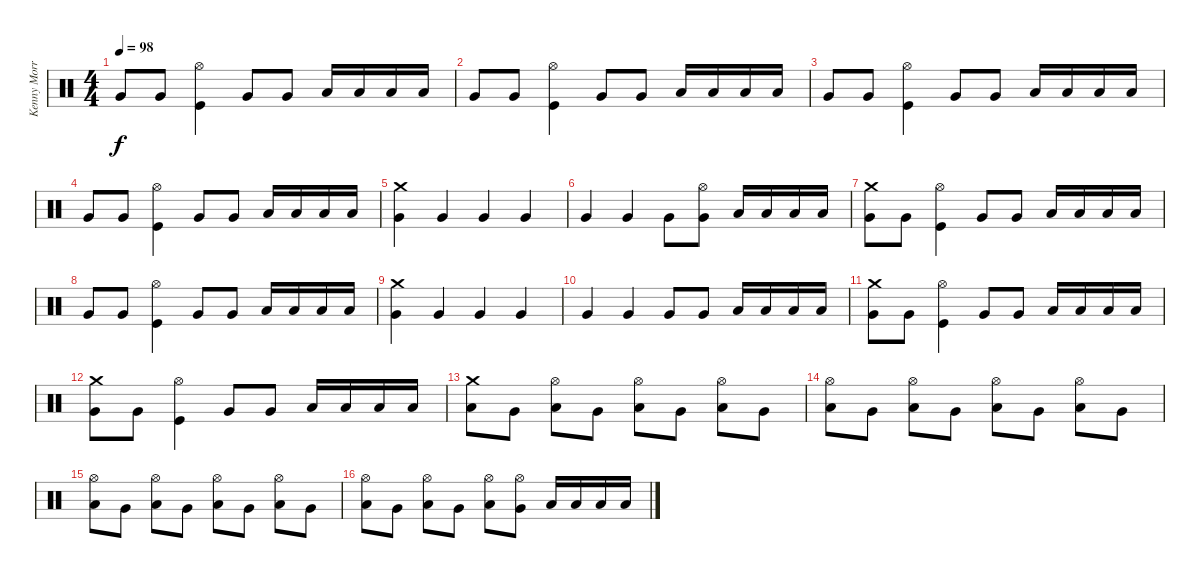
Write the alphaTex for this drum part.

\track ("Kenny Morris" "Kenny Morr") {instrument percussion}
\staff {score}
\articulation defaults
\ts (4 4)
\tempo 98
\clef neutral
\ks c "Very Low Tom (hit)".8{dy f} "Very Low Tom (hit)".8
("Hi-Hat (open)" "Kick (hit)").4 "Very Low Tom (hit)".8 "Very Low Tom (hit)".8 "Low Tom (hit)".16 "Low Tom (hit)".16 "Low Tom (hit)".16 "Low Tom (hit)".16 |
"Very Low Tom (hit)".8 "Very Low Tom (hit)".8 ("Hi-Hat (open)" "Kick (hit)").4 "Very Low Tom (hit)".8 "Very Low Tom (hit)".8 "Low Tom (hit)".16 "Low Tom (hit)".16 "Low Tom (hit)".16 "Low Tom (hit)".16 |
"Very Low Tom (hit)".8 "Very Low Tom (hit)".8 ("Hi-Hat (open)" "Kick (hit)").4 "Very Low Tom (hit)".8 "Very Low Tom (hit)".8 "Low Tom (hit)".16 "Low Tom (hit)".16 "Low Tom (hit)".16 "Low Tom (hit)".16 |
"Very Low Tom (hit)".8 "Very Low Tom (hit)".8 ("Hi-Hat (open)" "Kick (hit)").4 "Very Low Tom (hit)".8 "Very Low Tom (hit)".8 "Low Tom (hit)".16 "Low Tom (hit)".16 "Low Tom (hit)".16 "Low Tom (hit)".16 |
("Crash medium (hit)" "Very Low Tom (hit)").4 "Very Low Tom (hit)".4 "Very Low Tom (hit)".4 "Very Low Tom (hit)".4 |
"Very Low Tom (hit)".4 "Very Low Tom (hit)".4 "Very Low Tom (hit)".8 ("Hi-Hat (open)" "Very Low Tom (hit)").8 "Low Tom (hit)".16 "Low Tom (hit)".16 "Low Tom (hit)".16 "Low Tom (hit)".16 |
("Crash medium (hit)" "Very Low Tom (hit)").8 "Very Low Tom (hit)".8 ("Hi-Hat (open)" "Kick (hit)").4 "Very Low Tom (hit)".8 "Very Low Tom (hit)".8 "Low Tom (hit)".16 "Low Tom (hit)".16 "Low Tom (hit)".16 "Low Tom (hit)".16 |
"Very Low Tom (hit)".8 "Very Low Tom (hit)".8 ("Hi-Hat (open)" "Kick (hit)").4 "Very Low Tom (hit)".8 "Very Low Tom (hit)".8 "Low Tom (hit)".16 "Low Tom (hit)".16 "Low Tom (hit)".16 "Low Tom (hit)".16 |
("Crash medium (hit)" "Very Low Tom (hit)").4 "Very Low Tom (hit)".4 "Very Low Tom (hit)".4 "Very Low Tom (hit)".4 |
"Very Low Tom (hit)".4 "Very Low Tom (hit)".4 "Very Low Tom (hit)".8 "Very Low Tom (hit)".8 "Low Tom (hit)".16 "Low Tom (hit)".16 "Low Tom (hit)".16 "Low Tom (hit)".16 |
("Crash medium (hit)" "Very Low Tom (hit)").8 "Very Low Tom (hit)".8 ("Hi-Hat (open)" "Kick (hit)").4 "Very Low Tom (hit)".8 "Very Low Tom (hit)".8 "Low Tom (hit)".16 "Low Tom (hit)".16 "Low Tom (hit)".16 "Low Tom (hit)".16 |
("Crash medium (hit)" "Very Low Tom (hit)").8 "Very Low Tom (hit)".8 ("Hi-Hat (open)" "Kick (hit)").4 "Very Low Tom (hit)".8 "Very Low Tom (hit)".8 "Low Tom (hit)".16 "Low Tom (hit)".16 "Low Tom (hit)".16 "Low Tom (hit)".16 |
("Crash medium (hit)" "Low Tom (hit)").8 "Very Low Tom (hit)".8 ("Hi-Hat (open)" "Low Tom (hit)").8 "Very Low Tom (hit)".8 ("Hi-Hat (open)" "Low Tom (hit)").8 "Very Low Tom (hit)".8 ("Hi-Hat (open)" "Low Tom (hit)").8 "Very Low Tom (hit)".8 |
("Hi-Hat (open)" "Low Tom (hit)").8 "Very Low Tom (hit)".8 ("Hi-Hat (open)" "Low Tom (hit)").8 "Very Low Tom (hit)".8 ("Hi-Hat (open)" "Low Tom (hit)").8 "Very Low Tom (hit)".8 ("Hi-Hat (open)" "Low Tom (hit)").8 "Very Low Tom (hit)".8 |
("Hi-Hat (open)" "Low Tom (hit)").8 "Very Low Tom (hit)".8 ("Hi-Hat (open)" "Low Tom (hit)").8 "Very Low Tom (hit)".8 ("Hi-Hat (open)" "Low Tom (hit)").8 "Very Low Tom (hit)".8 ("Hi-Hat (open)" "Low Tom (hit)").8 "Very Low Tom (hit)".8 |
("Hi-Hat (open)" "Low Tom (hit)").8 "Very Low Tom (hit)".8 ("Hi-Hat (open)" "Low Tom (hit)").8 "Very Low Tom (hit)".8 ("Hi-Hat (open)" "Low Tom (hit)").8 ("Hi-Hat (open)" "Very Low Tom (hit)").8 "Low Tom (hit)".16 "Low Tom (hit)".16 "Low Tom (hit)".16 "Low Tom (hit)".16
